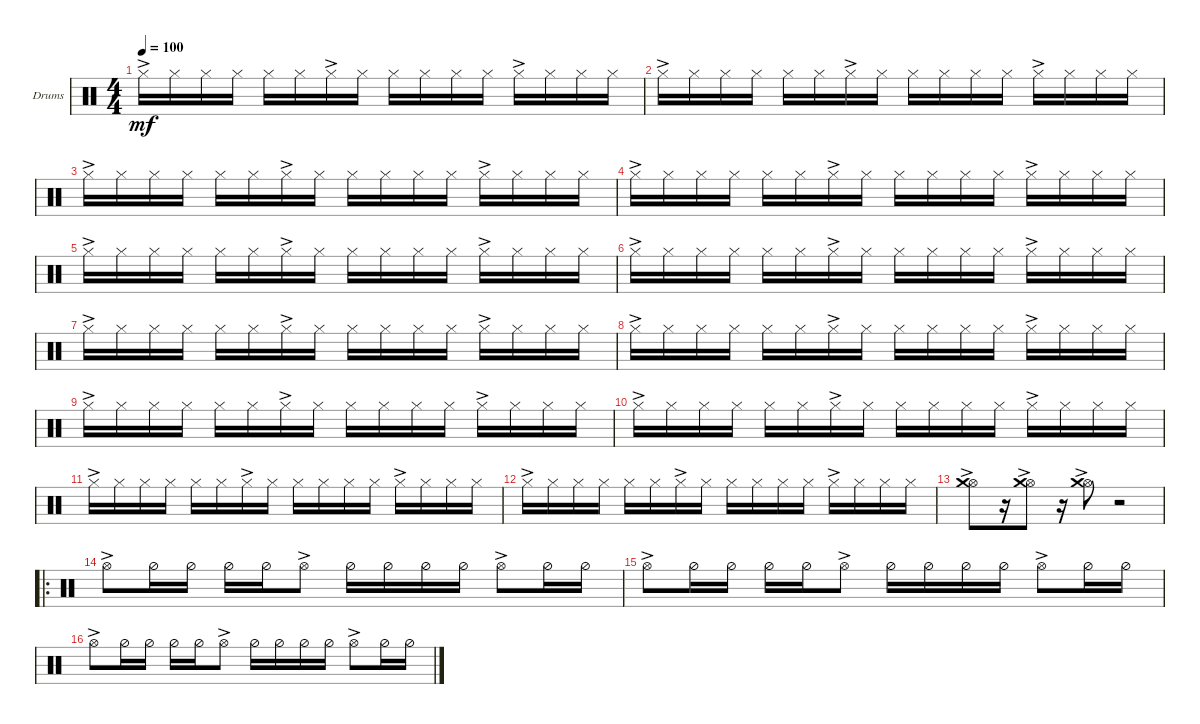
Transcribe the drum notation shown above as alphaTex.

\defaultSystemsLayout 4
\bracketExtendMode groupsimilarinstruments
\firstSystemTrackNameOrientation horizontal
\otherSystemsTrackNameOrientation horizontal
\track ("Drumkit 2" "Drums") {instrument percussion}
\staff {score}
\articulation defaults
\ts (4 4)
\tempo 100
\clef neutral
\ks c "Hi-Hat (closed)"{ac}.16{dy mf} "Hi-Hat (closed)".16 "Hi-Hat (closed)".16 "Hi-Hat (closed)".16 "Hi-Hat (closed)".16 "Hi-Hat (closed)".16 "Hi-Hat (closed)"{ac}.16 "Hi-Hat (closed)".16 "Hi-Hat (closed)".16 "Hi-Hat (closed)".16 "Hi-Hat (closed)".16 "Hi-Hat (closed)".16 "Hi-Hat (closed)"{ac}.16 "Hi-Hat (closed)".16 "Hi-Hat (closed)".16 "Hi-Hat (closed)".16
|
"Hi-Hat (closed)"{ac}.16 "Hi-Hat (closed)".16 "Hi-Hat (closed)".16 "Hi-Hat (closed)".16 "Hi-Hat (closed)".16 "Hi-Hat (closed)".16 "Hi-Hat (closed)"{ac}.16 "Hi-Hat (closed)".16 "Hi-Hat (closed)".16 "Hi-Hat (closed)".16 "Hi-Hat (closed)".16 "Hi-Hat (closed)".16 "Hi-Hat (closed)"{ac}.16 "Hi-Hat (closed)".16 "Hi-Hat (closed)".16 "Hi-Hat (closed)".16 |
"Hi-Hat (closed)"{ac}.16 "Hi-Hat (closed)".16 "Hi-Hat (closed)".16 "Hi-Hat (closed)".16 "Hi-Hat (closed)".16 "Hi-Hat (closed)".16 "Hi-Hat (closed)"{ac}.16 "Hi-Hat (closed)".16 "Hi-Hat (closed)".16 "Hi-Hat (closed)".16 "Hi-Hat (closed)".16 "Hi-Hat (closed)".16 "Hi-Hat (closed)"{ac}.16 "Hi-Hat (closed)".16 "Hi-Hat (closed)".16 "Hi-Hat (closed)".16 |
"Hi-Hat (closed)"{ac}.16 "Hi-Hat (closed)".16 "Hi-Hat (closed)".16 "Hi-Hat (closed)".16 "Hi-Hat (closed)".16 "Hi-Hat (closed)".16 "Hi-Hat (closed)"{ac}.16 "Hi-Hat (closed)".16 "Hi-Hat (closed)".16 "Hi-Hat (closed)".16 "Hi-Hat (closed)".16 "Hi-Hat (closed)".16 "Hi-Hat (closed)"{ac}.16 "Hi-Hat (closed)".16 "Hi-Hat (closed)".16 "Hi-Hat (closed)".16 |
"Hi-Hat (closed)"{ac}.16 "Hi-Hat (closed)".16 "Hi-Hat (closed)".16 "Hi-Hat (closed)".16 "Hi-Hat (closed)".16 "Hi-Hat (closed)".16 "Hi-Hat (closed)"{ac}.16 "Hi-Hat (closed)".16 "Hi-Hat (closed)".16 "Hi-Hat (closed)".16 "Hi-Hat (closed)".16 "Hi-Hat (closed)".16 "Hi-Hat (closed)"{ac}.16 "Hi-Hat (closed)".16 "Hi-Hat (closed)".16 "Hi-Hat (closed)".16 |
"Hi-Hat (closed)"{ac}.16 "Hi-Hat (closed)".16 "Hi-Hat (closed)".16 "Hi-Hat (closed)".16 "Hi-Hat (closed)".16 "Hi-Hat (closed)".16 "Hi-Hat (closed)"{ac}.16 "Hi-Hat (closed)".16 "Hi-Hat (closed)".16 "Hi-Hat (closed)".16 "Hi-Hat (closed)".16 "Hi-Hat (closed)".16 "Hi-Hat (closed)"{ac}.16 "Hi-Hat (closed)".16 "Hi-Hat (closed)".16 "Hi-Hat (closed)".16 |
"Hi-Hat (closed)"{ac}.16 "Hi-Hat (closed)".16 "Hi-Hat (closed)".16 "Hi-Hat (closed)".16 "Hi-Hat (closed)".16 "Hi-Hat (closed)".16 "Hi-Hat (closed)"{ac}.16 "Hi-Hat (closed)".16 "Hi-Hat (closed)".16 "Hi-Hat (closed)".16 "Hi-Hat (closed)".16 "Hi-Hat (closed)".16 "Hi-Hat (closed)"{ac}.16 "Hi-Hat (closed)".16 "Hi-Hat (closed)".16 "Hi-Hat (closed)".16 |
"Hi-Hat (closed)"{ac}.16 "Hi-Hat (closed)".16 "Hi-Hat (closed)".16 "Hi-Hat (closed)".16 "Hi-Hat (closed)".16 "Hi-Hat (closed)".16 "Hi-Hat (closed)"{ac}.16 "Hi-Hat (closed)".16 "Hi-Hat (closed)".16 "Hi-Hat (closed)".16 "Hi-Hat (closed)".16 "Hi-Hat (closed)".16 "Hi-Hat (closed)"{ac}.16 "Hi-Hat (closed)".16 "Hi-Hat (closed)".16 "Hi-Hat (closed)".16 |
"Hi-Hat (closed)"{ac}.16 "Hi-Hat (closed)".16 "Hi-Hat (closed)".16 "Hi-Hat (closed)".16 "Hi-Hat (closed)".16 "Hi-Hat (closed)".16 "Hi-Hat (closed)"{ac}.16 "Hi-Hat (closed)".16 "Hi-Hat (closed)".16 "Hi-Hat (closed)".16 "Hi-Hat (closed)".16 "Hi-Hat (closed)".16 "Hi-Hat (closed)"{ac}.16 "Hi-Hat (closed)".16 "Hi-Hat (closed)".16 "Hi-Hat (closed)".16 |
"Hi-Hat (closed)"{ac}.16 "Hi-Hat (closed)".16 "Hi-Hat (closed)".16 "Hi-Hat (closed)".16 "Hi-Hat (closed)".16 "Hi-Hat (closed)".16 "Hi-Hat (closed)"{ac}.16 "Hi-Hat (closed)".16 "Hi-Hat (closed)".16 "Hi-Hat (closed)".16 "Hi-Hat (closed)".16 "Hi-Hat (closed)".16 "Hi-Hat (closed)"{ac}.16 "Hi-Hat (closed)".16 "Hi-Hat (closed)".16 "Hi-Hat (closed)".16 |
"Hi-Hat (closed)"{ac}.16 "Hi-Hat (closed)".16 "Hi-Hat (closed)".16 "Hi-Hat (closed)".16 "Hi-Hat (closed)".16 "Hi-Hat (closed)".16 "Hi-Hat (closed)"{ac}.16 "Hi-Hat (closed)".16 "Hi-Hat (closed)".16 "Hi-Hat (closed)".16 "Hi-Hat (closed)".16 "Hi-Hat (closed)".16 "Hi-Hat (closed)"{ac}.16 "Hi-Hat (closed)".16 "Hi-Hat (closed)".16 "Hi-Hat (closed)".16 |
"Hi-Hat (closed)"{ac}.16 "Hi-Hat (closed)".16 "Hi-Hat (closed)".16 "Hi-Hat (closed)".16 "Hi-Hat (closed)".16 "Hi-Hat (closed)".16 "Hi-Hat (closed)"{ac}.16 "Hi-Hat (closed)".16 "Hi-Hat (closed)".16 "Hi-Hat (closed)".16 "Hi-Hat (closed)".16 "Hi-Hat (closed)".16 "Hi-Hat (closed)"{ac}.16 "Hi-Hat (closed)".16 "Hi-Hat (closed)".16 "Hi-Hat (closed)".16 |
("Hi-Hat (open)"{ac} "Crash medium (hit)").8 r.16 ("Hi-Hat (open)"{ac} "Crash medium (hit)").8 r.16 ("Hi-Hat (open)"{ac} "Crash medium (hit)").8 r.2 |
\ro "Hi-Hat (open)"{ac}.8 "Hi-Hat (half)".16 "Hi-Hat (half)".16 "Hi-Hat (half)".16 "Hi-Hat (half)".16 "Hi-Hat (open)"{ac}.8 "Hi-Hat (half)".16 "Hi-Hat (half)".16 "Hi-Hat (half)".16 "Hi-Hat (half)".16 "Hi-Hat (open)"{ac}.8 "Hi-Hat (half)".16 "Hi-Hat (half)".16
|
"Hi-Hat (open)"{ac}.8 "Hi-Hat (half)".16 "Hi-Hat (half)".16 "Hi-Hat (half)".16 "Hi-Hat (half)".16 "Hi-Hat (open)"{ac}.8 "Hi-Hat (half)".16 "Hi-Hat (half)".16 "Hi-Hat (half)".16 "Hi-Hat (half)".16 "Hi-Hat (open)"{ac}.8 "Hi-Hat (half)".16 "Hi-Hat (half)".16 |
"Hi-Hat (open)"{ac}.8 "Hi-Hat (half)".16 "Hi-Hat (half)".16 "Hi-Hat (half)".16 "Hi-Hat (half)".16 "Hi-Hat (open)"{ac}.8 "Hi-Hat (half)".16 "Hi-Hat (half)".16 "Hi-Hat (half)".16 "Hi-Hat (half)".16 "Hi-Hat (open)"{ac}.8 "Hi-Hat (half)".16 "Hi-Hat (half)".16
